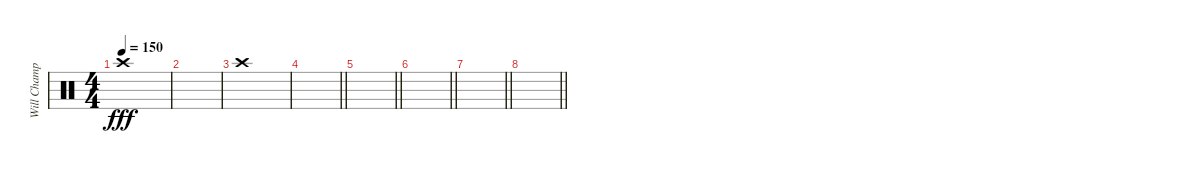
\track ("Will Champion" "Will Champ") {instrument percussion}
\staff {score}
\articulation defaults
\ts (4 4)
\tempo 150
\clef neutral
\ks c "Crash high (hit)".1{dy fff}
|
|
"Crash high (hit)".1 |
\barLineRight lightlight
|
\barLineRight lightlight
|
\barLineRight lightlight
|
\barLineRight lightlight
|
\barLineRight lightlight
